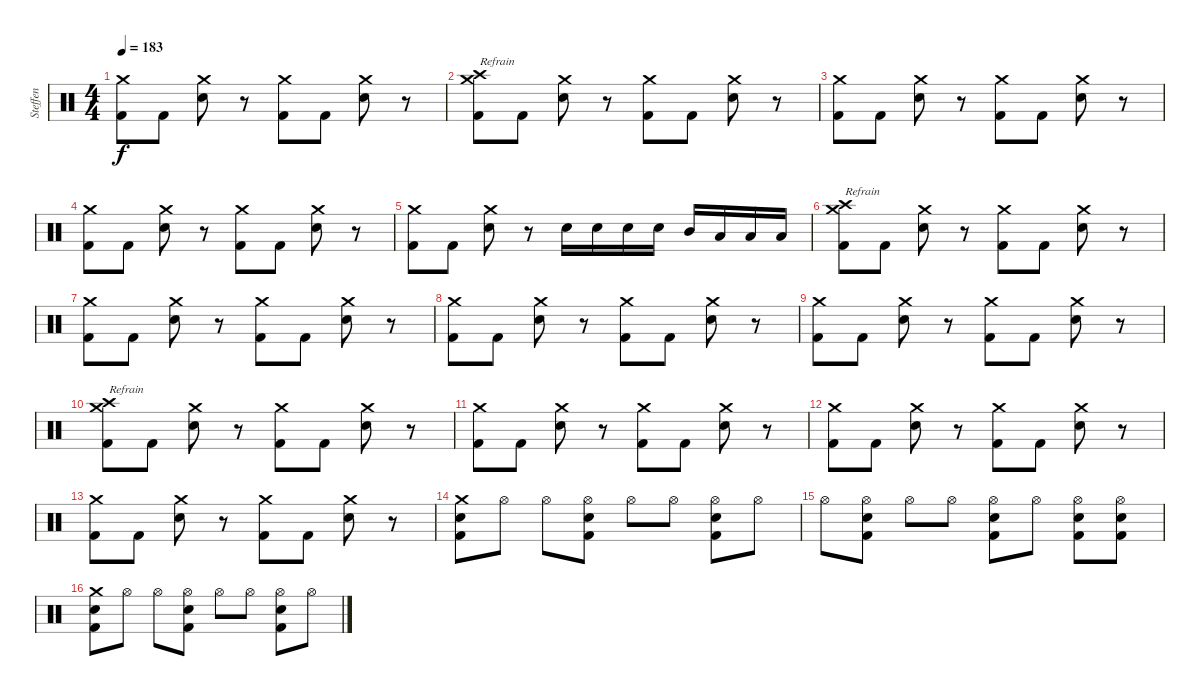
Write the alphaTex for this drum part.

\track ("Steffen" "Steffen") {instrument percussion}
\staff {score}
\articulation defaults
\ts (4 4)
\tempo 183
\clef neutral
\ks c
("Crash medium (hit)" "Kick (hit) 2").8{dy f} "Kick (hit) 2".8 ("Crash medium (hit)" "Snare (hit) 2").8 r.8 ("Crash medium (hit)" "Kick (hit) 2").8 "Kick (hit) 2".8 ("Crash medium (hit)" "Snare (hit) 2").8 r.8 |
("Crash high (hit)" "Crash medium (hit)" "Kick (hit) 2").8{txt "Refrain"} "Kick (hit) 2".8 ("Crash medium (hit)" "Snare (hit) 2").8 r.8 ("Crash medium (hit)" "Kick (hit) 2").8 "Kick (hit) 2".8 ("Crash medium (hit)" "Snare (hit) 2").8 r.8 |
("Crash medium (hit)" "Kick (hit) 2").8 "Kick (hit) 2".8 ("Crash medium (hit)" "Snare (hit) 2").8 r.8 ("Crash medium (hit)" "Kick (hit) 2").8 "Kick (hit) 2".8 ("Crash medium (hit)" "Snare (hit) 2").8 r.8 |
("Crash medium (hit)" "Kick (hit) 2").8 "Kick (hit) 2".8 ("Crash medium (hit)" "Snare (hit) 2").8 r.8 ("Crash medium (hit)" "Kick (hit) 2").8 "Kick (hit) 2".8 ("Crash medium (hit)" "Snare (hit) 2").8 r.8 |
("Crash medium (hit)" "Kick (hit) 2").8 "Kick (hit) 2".8 ("Crash medium (hit)" "Snare (hit) 2").8 r.8 "Snare (hit) 2".16 "Snare (hit) 2".16 "Snare (hit) 2".16 "Snare (hit) 2".16 "Mid Tom (hit)".16 "Low Tom (hit)".16 "Low Tom (hit)".16 "Low Tom (hit)".16 |
("Crash high (hit)" "Crash medium (hit)" "Kick (hit) 2").8{txt "Refrain"} "Kick (hit) 2".8 ("Crash medium (hit)" "Snare (hit) 2").8 r.8 ("Crash medium (hit)" "Kick (hit) 2").8 "Kick (hit) 2".8 ("Crash medium (hit)" "Snare (hit) 2").8 r.8 |
("Crash medium (hit)" "Kick (hit) 2").8 "Kick (hit) 2".8 ("Crash medium (hit)" "Snare (hit) 2").8 r.8 ("Crash medium (hit)" "Kick (hit) 2").8 "Kick (hit) 2".8 ("Crash medium (hit)" "Snare (hit) 2").8 r.8 |
("Crash medium (hit)" "Kick (hit) 2").8 "Kick (hit) 2".8 ("Crash medium (hit)" "Snare (hit) 2").8 r.8 ("Crash medium (hit)" "Kick (hit) 2").8 "Kick (hit) 2".8 ("Crash medium (hit)" "Snare (hit) 2").8 r.8 |
("Crash medium (hit)" "Kick (hit) 2").8 "Kick (hit) 2".8 ("Crash medium (hit)" "Snare (hit) 2").8 r.8 ("Crash medium (hit)" "Kick (hit) 2").8 "Kick (hit) 2".8 ("Crash medium (hit)" "Snare (hit) 2").8 r.8 |
("Crash high (hit)" "Crash medium (hit)" "Kick (hit) 2").8{txt "Refrain"} "Kick (hit) 2".8 ("Crash medium (hit)" "Snare (hit) 2").8 r.8 ("Crash medium (hit)" "Kick (hit) 2").8 "Kick (hit) 2".8 ("Crash medium (hit)" "Snare (hit) 2").8 r.8 |
("Crash medium (hit)" "Kick (hit) 2").8 "Kick (hit) 2".8 ("Crash medium (hit)" "Snare (hit) 2").8 r.8 ("Crash medium (hit)" "Kick (hit) 2").8 "Kick (hit) 2".8 ("Crash medium (hit)" "Snare (hit) 2").8 r.8 |
("Crash medium (hit)" "Kick (hit) 2").8 "Kick (hit) 2".8 ("Crash medium (hit)" "Snare (hit) 2").8 r.8 ("Crash medium (hit)" "Kick (hit) 2").8 "Kick (hit) 2".8 ("Crash medium (hit)" "Snare (hit) 2").8 r.8 |
("Crash medium (hit)" "Kick (hit) 2").8 "Kick (hit) 2".8 ("Crash medium (hit)" "Snare (hit) 2").8 r.8 ("Crash medium (hit)" "Kick (hit) 2").8 "Kick (hit) 2".8 ("Crash medium (hit)" "Snare (hit) 2").8 r.8 |
("Crash medium (hit)" "Snare (hit) 2" "Kick (hit) 2").8 "Hi-Hat (open)".8 "Hi-Hat (open)".8 ("Hi-Hat (open)" "Snare (hit) 2" "Kick (hit) 2").8 "Hi-Hat (open)".8 "Hi-Hat (open)".8 ("Hi-Hat (open)" "Snare (hit) 2" "Kick (hit) 2").8 "Hi-Hat (open)".8 |
"Hi-Hat (open)".8 ("Hi-Hat (open)" "Snare (hit) 2" "Kick (hit) 2").8 "Hi-Hat (open)".8 "Hi-Hat (open)".8 ("Hi-Hat (open)" "Snare (hit) 2" "Kick (hit) 2").8 "Hi-Hat (open)".8 ("Hi-Hat (open)" "Snare (hit) 2" "Kick (hit) 2").8 ("Hi-Hat (open)" "Snare (hit) 2" "Kick (hit) 2").8 |
("Crash medium (hit)" "Snare (hit) 2" "Kick (hit) 2").8 "Hi-Hat (open)".8 "Hi-Hat (open)".8 ("Hi-Hat (open)" "Snare (hit) 2" "Kick (hit) 2").8 "Hi-Hat (open)".8 "Hi-Hat (open)".8 ("Hi-Hat (open)" "Snare (hit) 2" "Kick (hit) 2").8 "Hi-Hat (open)".8
